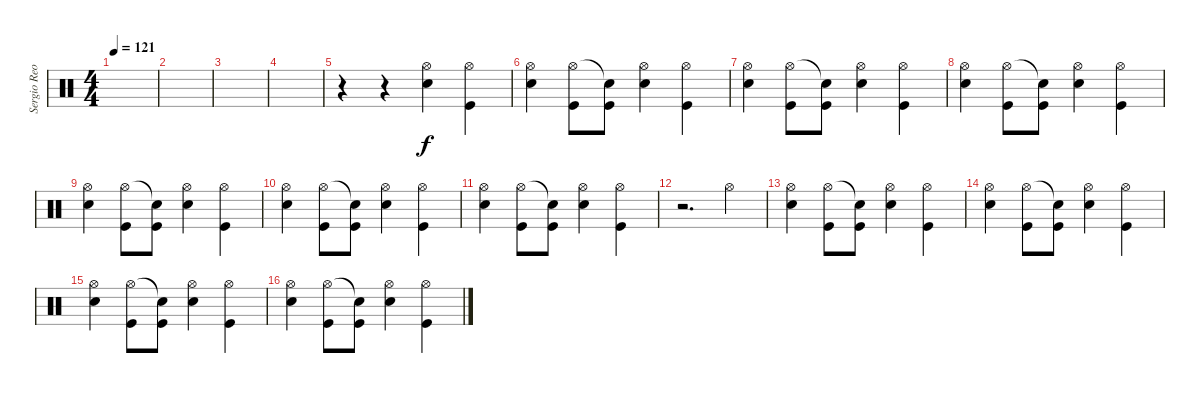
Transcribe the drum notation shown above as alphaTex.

\track ("Sergio Reoli" "Sergio Reo") {instrument percussion}
\staff {score}
\articulation defaults
\ts (4 4)
\tempo 121
\clef neutral
\ks c
|
|
|
|
r.4 r.4 ("Snare (hit) 2" "Hi-Hat (open)").4 ("Hi-Hat (open)" "Kick (hit)").4 |
("Snare (hit) 2" "Hi-Hat (open)").4 ("Hi-Hat (open)" "Kick (hit)").8 ("Snare (hit)"{t} "Kick (hit)").8 ("Snare (hit) 2" "Hi-Hat (open)").4 ("Hi-Hat (open)" "Kick (hit)").4 |
("Snare (hit) 2" "Hi-Hat (open)").4 ("Hi-Hat (open)" "Kick (hit)").8 ("Snare (hit)"{t} "Kick (hit)").8 ("Snare (hit) 2" "Hi-Hat (open)").4 ("Hi-Hat (open)" "Kick (hit)").4 |
("Snare (hit) 2" "Hi-Hat (open)").4 ("Hi-Hat (open)" "Kick (hit)").8 ("Snare (hit)"{t} "Kick (hit)").8 ("Snare (hit) 2" "Hi-Hat (open)").4 ("Hi-Hat (open)" "Kick (hit)").4 |
("Snare (hit) 2" "Hi-Hat (open)").4 ("Hi-Hat (open)" "Kick (hit)").8 ("Snare (hit)"{t} "Kick (hit)").8 ("Snare (hit) 2" "Hi-Hat (open)").4 ("Hi-Hat (open)" "Kick (hit)").4 |
("Snare (hit) 2" "Hi-Hat (open)").4 ("Hi-Hat (open)" "Kick (hit)").8 ("Snare (hit)"{t} "Kick (hit)").8 ("Snare (hit) 2" "Hi-Hat (open)").4 ("Hi-Hat (open)" "Kick (hit)").4 |
("Snare (hit) 2" "Hi-Hat (open)").4 ("Hi-Hat (open)" "Kick (hit)").8 ("Snare (hit)"{t} "Kick (hit)").8 ("Snare (hit) 2" "Hi-Hat (open)").4 ("Hi-Hat (open)" "Kick (hit)").4 |
r.2{d} "Hi-Hat (open)".4 |
("Snare (hit) 2" "Hi-Hat (open)").4 ("Hi-Hat (open)" "Kick (hit)").8 ("Snare (hit)"{t} "Kick (hit)").8 ("Snare (hit) 2" "Hi-Hat (open)").4 ("Hi-Hat (open)" "Kick (hit)").4 |
("Snare (hit) 2" "Hi-Hat (open)").4 ("Hi-Hat (open)" "Kick (hit)").8 ("Snare (hit)"{t} "Kick (hit)").8 ("Snare (hit) 2" "Hi-Hat (open)").4 ("Hi-Hat (open)" "Kick (hit)").4 |
("Snare (hit) 2" "Hi-Hat (open)").4 ("Hi-Hat (open)" "Kick (hit)").8 ("Snare (hit)"{t} "Kick (hit)").8 ("Snare (hit) 2" "Hi-Hat (open)").4 ("Hi-Hat (open)" "Kick (hit)").4 |
("Snare (hit) 2" "Hi-Hat (open)").4 ("Hi-Hat (open)" "Kick (hit)").8 ("Snare (hit)"{t} "Kick (hit)").8 ("Snare (hit) 2" "Hi-Hat (open)").4 ("Hi-Hat (open)" "Kick (hit)").4
